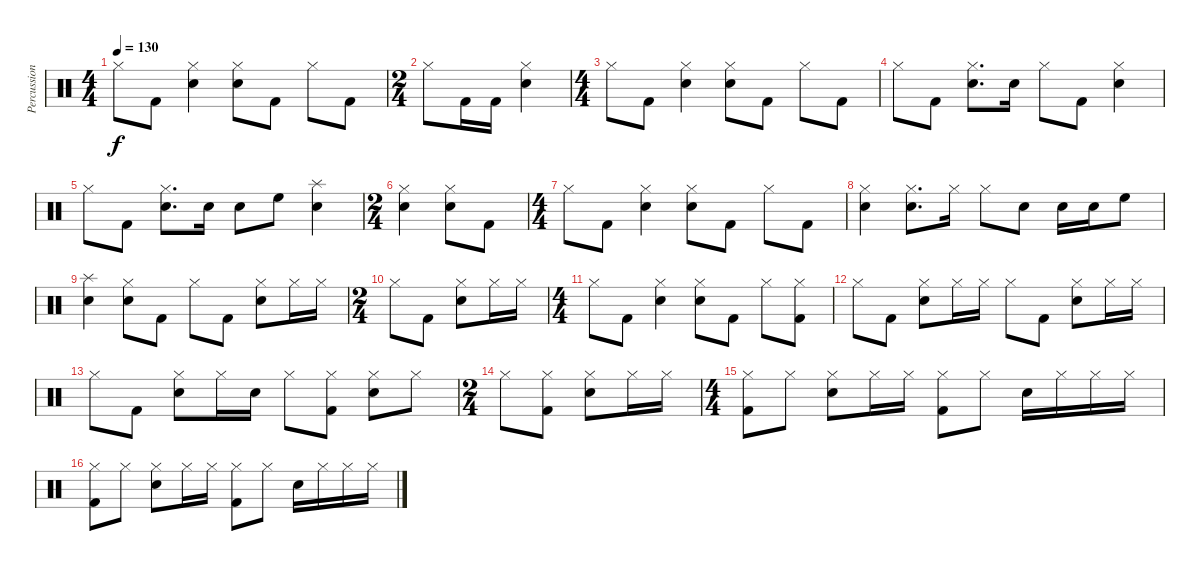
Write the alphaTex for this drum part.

\track ("Percussion" "Percussion") {instrument percussion}
\staff {score}
\articulation defaults
\ts (4 4)
\tempo 130
\clef neutral
\ks c "Hi-Hat (closed)".8{dy f} "Kick (hit) 2".8
("Snare (hit) 2" "Hi-Hat (closed)").4 ("Snare (hit) 2" "Hi-Hat (closed)").8 "Kick (hit) 2".8 "Hi-Hat (closed)".8 "Kick (hit) 2".8 |
\ts (2 4)
"Hi-Hat (closed)".8 "Kick (hit) 2".16 "Kick (hit) 2".16 ("Snare (hit) 2" "Hi-Hat (closed)").4 |
\ts (4 4)
"Hi-Hat (closed)".8 "Kick (hit) 2".8 ("Snare (hit) 2" "Hi-Hat (closed)").4 ("Snare (hit) 2" "Hi-Hat (closed)").8 "Kick (hit) 2".8 "Hi-Hat (closed)".8 "Kick (hit) 2".8 |
"Hi-Hat (closed)".8 "Kick (hit) 2".8 ("Snare (hit) 2" "Hi-Hat (closed)").8{d} "Snare (hit) 2".16 "Hi-Hat (closed)".8 "Kick (hit) 2".8 ("Snare (hit) 2" "Hi-Hat (closed)").4 |
"Hi-Hat (closed)".8 "Kick (hit) 2".8 ("Snare (hit) 2" "Hi-Hat (closed)").8{d} "Snare (hit) 2".16 "Snare (hit) 2".8 "High Floor Tom (hit)".8 ("Snare (hit) 2" "Splash (hit)").4 |
\ts (2 4)
("Snare (hit) 2" "Hi-Hat (closed)").4 ("Snare (hit) 2" "Hi-Hat (closed)").8 "Kick (hit) 2".8 |
\ts (4 4)
"Hi-Hat (closed)".8 "Kick (hit) 2".8 ("Snare (hit) 2" "Hi-Hat (closed)").4 ("Snare (hit) 2" "Hi-Hat (closed)").8 "Kick (hit) 2".8 "Hi-Hat (closed)".8 "Kick (hit) 2".8 |
("Snare (hit) 2" "Hi-Hat (closed)").4 ("Snare (hit) 2" "Hi-Hat (closed)").8{d} "Hi-Hat (closed)".16 "Hi-Hat (closed)".8 "Snare (hit) 2".8 "Snare (hit) 2".16 "Snare (hit) 2".16 "High Floor Tom (hit)".8 |
("Snare (hit) 2" "Splash (hit)").4 ("Snare (hit) 2" "Hi-Hat (closed)").8 "Kick (hit) 2".8 "Hi-Hat (closed)".8 "Kick (hit) 2".8 ("Snare (hit) 2" "Hi-Hat (closed)").8 "Hi-Hat (closed)".16 "Hi-Hat (closed)".16 |
\ts (2 4)
"Hi-Hat (closed)".8 "Kick (hit) 2".8 ("Snare (hit) 2" "Hi-Hat (closed)").8 "Hi-Hat (closed)".16 "Hi-Hat (closed)".16 |
\ts (4 4)
"Hi-Hat (closed)".8 "Kick (hit) 2".8 ("Snare (hit) 2" "Hi-Hat (closed)").4 ("Snare (hit) 2" "Hi-Hat (closed)").8 "Kick (hit) 2".8 "Hi-Hat (closed)".8 ("Kick (hit) 2" "Hi-Hat (closed)").8 |
"Hi-Hat (closed)".8 "Kick (hit) 2".8 ("Snare (hit) 2" "Hi-Hat (closed)").8 "Hi-Hat (closed)".16 "Hi-Hat (closed)".16 "Hi-Hat (closed)".8 "Kick (hit) 2".8 ("Snare (hit) 2" "Hi-Hat (closed)").8 "Hi-Hat (closed)".16 "Hi-Hat (closed)".16 |
"Hi-Hat (closed)".8 "Kick (hit) 2".8 ("Snare (hit) 2" "Hi-Hat (closed)").8 "Hi-Hat (closed)".16 "Snare (hit) 2".16 "Hi-Hat (closed)".8 ("Kick (hit) 2" "Hi-Hat (closed)").8 ("Snare (hit) 2" "Hi-Hat (closed)").8 "Hi-Hat (closed)".8 |
\ts (2 4)
"Hi-Hat (closed)".8 ("Kick (hit) 2" "Hi-Hat (closed)").8 ("Snare (hit) 2" "Hi-Hat (closed)").8 "Hi-Hat (closed)".16 "Hi-Hat (closed)".16 |
\ts (4 4)
("Kick (hit) 2" "Hi-Hat (closed)").8 "Hi-Hat (closed)".8 ("Snare (hit) 2" "Hi-Hat (closed)").8 "Hi-Hat (closed)".16 "Hi-Hat (closed)".16 ("Kick (hit) 2" "Hi-Hat (closed)").8 "Hi-Hat (closed)".8 "Snare (hit) 2".16 "Hi-Hat (closed)".16 "Hi-Hat (closed)".16 "Hi-Hat (closed)".16 |
("Kick (hit) 2" "Hi-Hat (closed)").8 "Hi-Hat (closed)".8 ("Snare (hit) 2" "Hi-Hat (closed)").8 "Hi-Hat (closed)".16 "Hi-Hat (closed)".16 ("Kick (hit) 2" "Hi-Hat (closed)").8 "Hi-Hat (closed)".8 "Snare (hit) 2".16 "Hi-Hat (closed)".16 "Hi-Hat (closed)".16 "Hi-Hat (closed)".16
